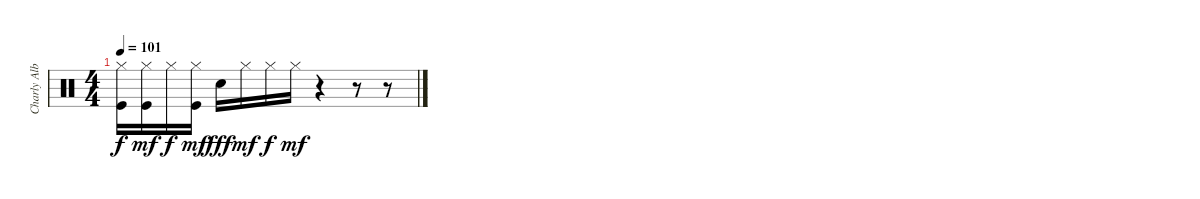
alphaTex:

\track ("Charly Alberti" "Charly Alb") {instrument percussion}
\staff {score}
\articulation defaults
\ts (4 4)
\tempo 101
\clef neutral
\ks c
("Kick (hit)" "Hi-Hat (closed)").16{dy f} ("Kick (hit)" "Hi-Hat (closed)").16{dy mf} "Hi-Hat (closed)".16{dy f} ("Kick (hit)" "Hi-Hat (closed)").16{dy mf} "Snare (hit) 2".16{dy fff} "Hi-Hat (closed)".16{dy mf} "Hi-Hat (closed)".16{dy f} "Hi-Hat (closed)".16{dy mf} r.4 r.8 r.8
